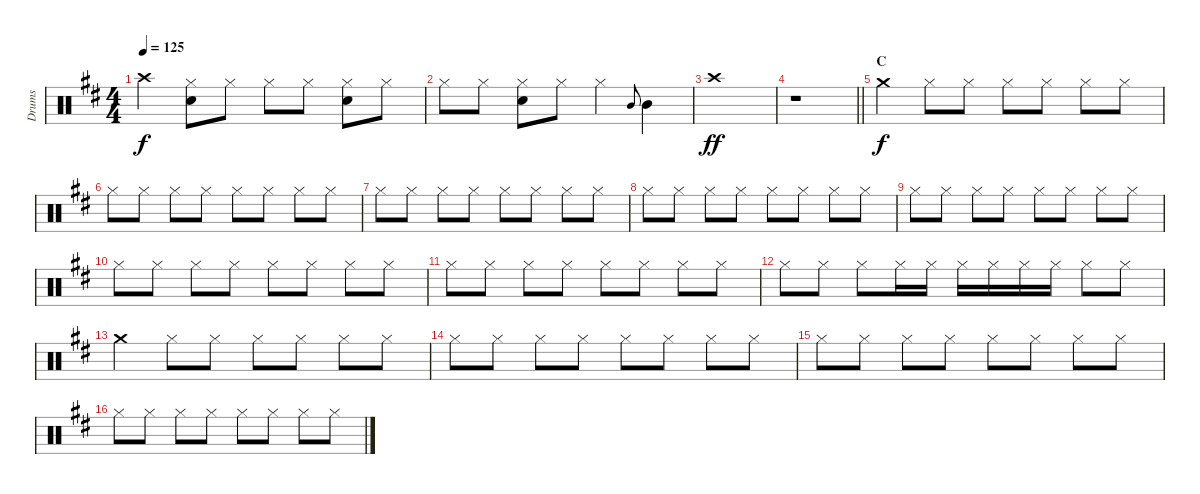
\track ("Drums" "Drums") {instrument percussion}
\staff {score}
\articulation defaults
\ts (4 4)
\tempo 125
\clef neutral
\ks d "Crash high (hit)".4{dy f}
("Hi-Hat (closed)" "Snare (hit) 2").8 "Hi-Hat (closed)".8 "Hi-Hat (closed)".8 "Hi-Hat (closed)".8 ("Hi-Hat (closed)" "Snare (hit) 2").8 "Hi-Hat (closed)".8 |
"Hi-Hat (closed)".8 "Hi-Hat (closed)".8 ("Hi-Hat (closed)" "Snare (hit) 2").8 "Hi-Hat (closed)".8 "Hi-Hat (closed)".4 "Mid Tom (hit)".8{gr onbeat} "Mid Tom (hit)".4 |
"Crash high (hit)".1{dy ff} |
\barLineRight lightlight
r.1 |
\section ("" "C")
"Crash medium (hit)".4{dy f} "Hi-Hat (closed)".8 "Hi-Hat (closed)".8 "Hi-Hat (closed)".8 "Hi-Hat (closed)".8 "Hi-Hat (closed)".8 "Hi-Hat (closed)".8 |
"Hi-Hat (closed)".8 "Hi-Hat (closed)".8 "Hi-Hat (closed)".8 "Hi-Hat (closed)".8 "Hi-Hat (closed)".8 "Hi-Hat (closed)".8 "Hi-Hat (closed)".8 "Hi-Hat (closed)".8 |
"Hi-Hat (closed)".8 "Hi-Hat (closed)".8 "Hi-Hat (closed)".8 "Hi-Hat (closed)".8 "Hi-Hat (closed)".8 "Hi-Hat (closed)".8 "Hi-Hat (closed)".8 "Hi-Hat (closed)".8 |
"Hi-Hat (closed)".8 "Hi-Hat (closed)".8 "Hi-Hat (closed)".8 "Hi-Hat (closed)".8 "Hi-Hat (closed)".8 "Hi-Hat (closed)".8 "Hi-Hat (closed)".8 "Hi-Hat (closed)".8 |
"Hi-Hat (closed)".8 "Hi-Hat (closed)".8 "Hi-Hat (closed)".8 "Hi-Hat (closed)".8 "Hi-Hat (closed)".8 "Hi-Hat (closed)".8 "Hi-Hat (closed)".8 "Hi-Hat (closed)".8 |
"Hi-Hat (closed)".8 "Hi-Hat (closed)".8 "Hi-Hat (closed)".8 "Hi-Hat (closed)".8 "Hi-Hat (closed)".8 "Hi-Hat (closed)".8 "Hi-Hat (closed)".8 "Hi-Hat (closed)".8 |
"Hi-Hat (closed)".8 "Hi-Hat (closed)".8 "Hi-Hat (closed)".8 "Hi-Hat (closed)".8 "Hi-Hat (closed)".8 "Hi-Hat (closed)".8 "Hi-Hat (closed)".8 "Hi-Hat (closed)".8 |
"Hi-Hat (closed)".8 "Hi-Hat (closed)".8 "Hi-Hat (closed)".8 "Hi-Hat (closed)".16 "Hi-Hat (closed)".16 "Hi-Hat (closed)".16 "Hi-Hat (closed)".16 "Hi-Hat (closed)".16 "Hi-Hat (closed)".16 "Hi-Hat (closed)".8 "Hi-Hat (closed)".8 |
"Crash medium (hit)".4 "Hi-Hat (closed)".8 "Hi-Hat (closed)".8 "Hi-Hat (closed)".8 "Hi-Hat (closed)".8 "Hi-Hat (closed)".8 "Hi-Hat (closed)".8 |
"Hi-Hat (closed)".8 "Hi-Hat (closed)".8 "Hi-Hat (closed)".8 "Hi-Hat (closed)".8 "Hi-Hat (closed)".8 "Hi-Hat (closed)".8 "Hi-Hat (closed)".8 "Hi-Hat (closed)".8 |
"Hi-Hat (closed)".8 "Hi-Hat (closed)".8 "Hi-Hat (closed)".8 "Hi-Hat (closed)".8 "Hi-Hat (closed)".8 "Hi-Hat (closed)".8 "Hi-Hat (closed)".8 "Hi-Hat (closed)".8 |
"Hi-Hat (closed)".8 "Hi-Hat (closed)".8 "Hi-Hat (closed)".8 "Hi-Hat (closed)".8 "Hi-Hat (closed)".8 "Hi-Hat (closed)".8 "Hi-Hat (closed)".8 "Hi-Hat (closed)".8
